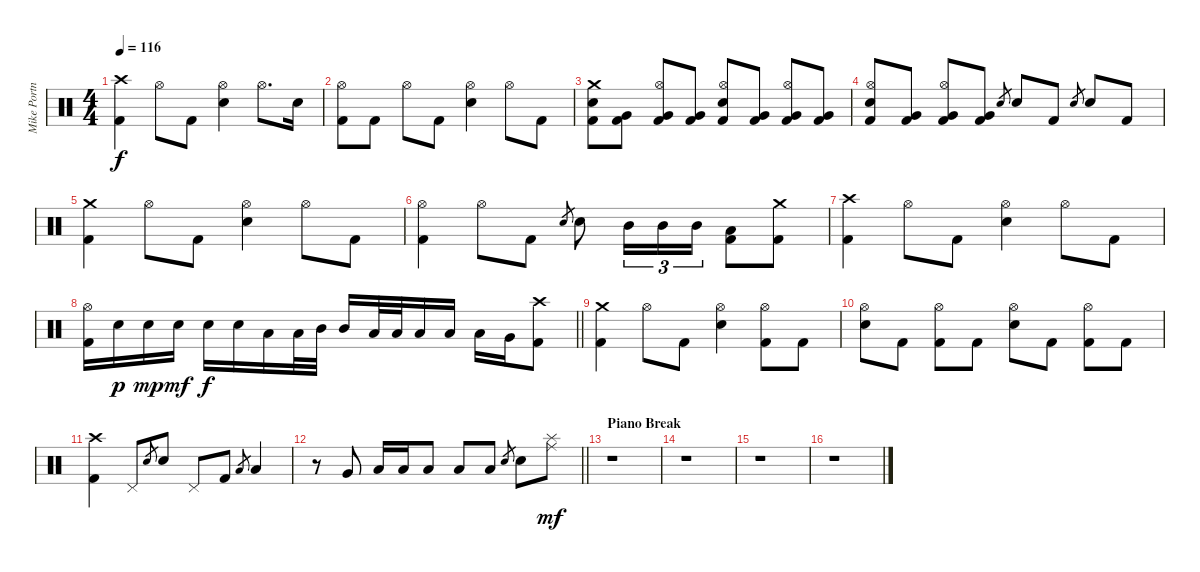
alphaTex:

\track ("Mike Portnoy [Drums]" "Mike Portn") {instrument percussion}
\staff {score}
\articulation defaults
\ts (4 4)
\tempo 116
\clef neutral
\ks c
("Crash high (hit)" "Kick (hit) 2").4{dy f} "Hi-Hat (open)".8 "Kick (hit) 2".8 ("Hi-Hat (open)" "Electric Snare (hit)").4 "Hi-Hat (open)".8{d} "Snare (hit) 2".16 |
("Hi-Hat (open)" "Kick (hit) 2").8 "Kick (hit) 2".8 "Hi-Hat (open)".8 "Kick (hit) 2".8 ("Hi-Hat (open)" "Snare (hit) 2").4 "Hi-Hat (open)".8 "Kick (hit) 2".8 |
("Crash medium (hit)" "Electric Snare (hit)" "Kick (hit) 2").8 ("Very Low Tom (hit)" "Kick (hit) 2").8 ("Hi-Hat (open)" "Very Low Tom (hit)" "Kick (hit) 2").8 ("Very Low Tom (hit)" "Kick (hit) 2").8 ("Hi-Hat (open)" "Electric Snare (hit)" "Kick (hit) 2").8 ("Very Low Tom (hit)" "Kick (hit) 2").8 ("Hi-Hat (open)" "Very Low Tom (hit)" "Kick (hit) 2").8 ("Very Low Tom (hit)" "Kick (hit) 2").8 |
("Hi-Hat (open)" "Electric Snare (hit)" "Kick (hit) 2").8 ("Very Low Tom (hit)" "Kick (hit) 2").8 ("Hi-Hat (open)" "Very Low Tom (hit)" "Kick (hit) 2").8 ("Very Low Tom (hit)" "Kick (hit) 2").8 "Electric Snare (hit)".8{gr} "Electric Snare (hit)".8 "Kick (hit) 2".8 "Electric Snare (hit)".8{gr} "Electric Snare (hit)".8 "Kick (hit) 2".8 |
("Crash medium (hit)" "Kick (hit) 2").4 "Hi-Hat (open)".8 "Kick (hit) 2".8 ("Hi-Hat (open)" "Electric Snare (hit)").4 "Hi-Hat (open)".8 "Kick (hit) 2".8 |
("Hi-Hat (open)" "Kick (hit) 2").4 "Hi-Hat (open)".8 "Kick (hit) 2".8 "Electric Snare (hit)".8{gr} "Electric Snare (hit)".8 "Mid Tom (hit)".16{tu (3 2)} "Mid Tom (hit)".16{tu (3 2)} "Mid Tom (hit)".16{tu (3 2)} ("Low Tom (hit)" "Kick (hit) 2").8 ("Crash medium (hit)" "Kick (hit) 2").8 |
("Crash high (hit)" "Kick (hit) 2").4 "Hi-Hat (open)".8 "Kick (hit) 2".8 ("Hi-Hat (open)" "Electric Snare (hit)").4 "Hi-Hat (open)".8 "Kick (hit) 2".8 |
\barLineRight lightlight
("Hi-Hat (open)" "Kick (hit) 2").16 "Electric Snare (hit)".16{dy p} "Electric Snare (hit)".16{dy mp} "Electric Snare (hit)".16{dy mf} "Electric Snare (hit)".16{dy f} "Electric Snare (hit)".16 "Low Floor Tom (hit)".16 "Low Floor Tom (hit)".32 "Mid Tom (hit)".32 "Mid Tom (hit)".16 "Low Tom (hit)".32 "Low Tom (hit)".32 "Low Tom (hit)".16 "Low Tom (hit)".16 "Low Tom (hit)".16 "Very Low Tom (hit)".16 ("Crash high (hit)" "Kick (hit) 2").8 |
("Crash medium (hit)" "Kick (hit) 2").4 "Hi-Hat (open)".8 "Kick (hit) 2".8 ("Hi-Hat (open)" "Electric Snare (hit)").4 ("Hi-Hat (open)" "Kick (hit) 2").8 "Kick (hit) 2".8 |
("Hi-Hat (open)" "Electric Snare (hit)").8 "Kick (hit) 2".8 ("Hi-Hat (open)" "Kick (hit) 2").8 "Kick (hit) 2".8 ("Hi-Hat (open)" "Electric Snare (hit)").8 "Kick (hit) 2".8 ("Hi-Hat (open)" "Kick (hit) 2").8 "Kick (hit) 2".8 |
("Crash high (hit)" "Kick (hit) 2").4 "Pedal Hi-Hat (hit)".8 "Electric Snare (hit)".8{gr} "Electric Snare (hit)".8 "Pedal Hi-Hat (hit)".8 "Kick (hit) 2".8 "Low Tom (hit)".8{gr} "Low Tom (hit)".4 |
\barLineRight lightlight
r.8 "Very Low Tom (hit)".8 "Low Floor Tom (hit)".16 "Low Floor Tom (hit)".16 "Low Floor Tom (hit)".8 "Low Floor Tom (hit)".8 "Low Floor Tom (hit)".8 "Electric Snare (hit)".8{gr} "Electric Snare (hit)".8 ("Splash (hit)" "Ride (middle)").8{dy mf} |
\section ("" "Piano Break")
r.1 |
r.1 |
r.1 |
r.1
